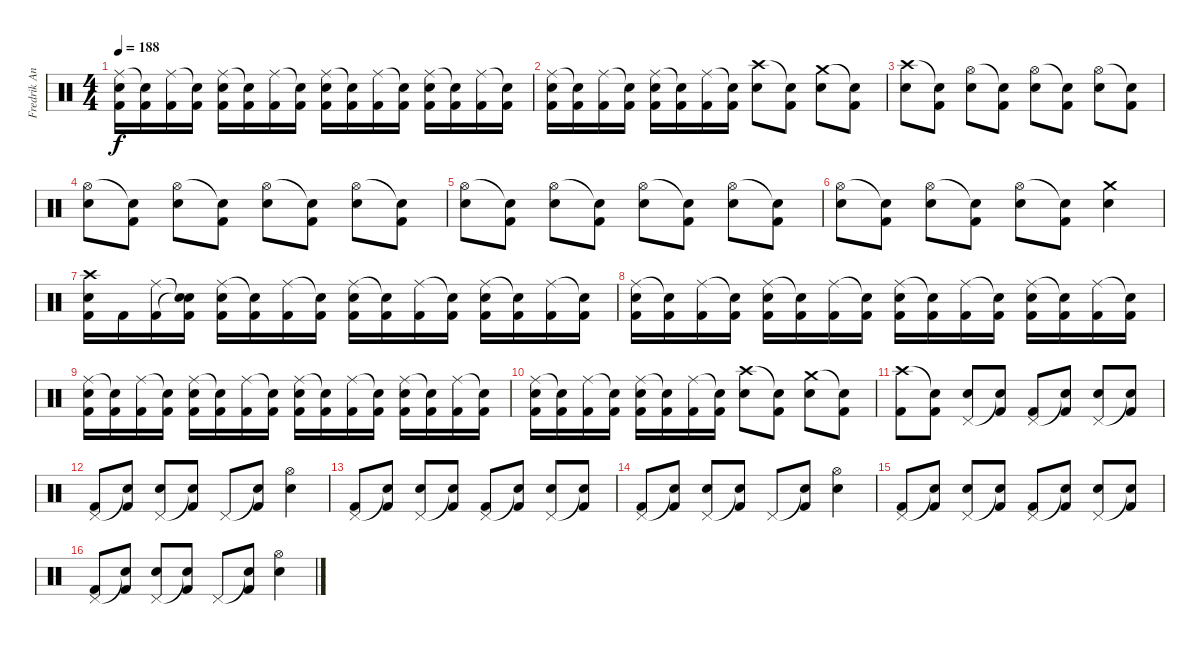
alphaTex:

\track ("Fredrik Andersson" "Fredrik An") {instrument percussion}
\staff {score}
\articulation defaults
\ts (4 4)
\tempo 188
\clef neutral
\ks c
("Ride (middle)" "Snare (hit) 2" "Kick (hit) 2").16{dy f} ("Snare (hit)"{t} "Kick (hit) 2").16 ("Ride (middle)" "Kick (hit) 2").16 ("Snare (hit)"{t} "Kick (hit) 2").16 ("Ride (middle)" "Snare (hit) 2" "Kick (hit) 2").16 ("Snare (hit)"{t} "Kick (hit) 2").16 ("Ride (middle)" "Kick (hit) 2").16 ("Snare (hit)"{t} "Kick (hit) 2").16 ("Ride (middle)" "Snare (hit) 2" "Kick (hit) 2").16 ("Snare (hit)"{t} "Kick (hit) 2").16 ("Ride (middle)" "Kick (hit) 2").16 ("Snare (hit)"{t} "Kick (hit) 2").16 ("Ride (middle)" "Snare (hit) 2" "Kick (hit) 2").16 ("Snare (hit)"{t} "Kick (hit) 2").16 ("Ride (middle)" "Kick (hit) 2").16 ("Snare (hit)"{t} "Kick (hit) 2").16 |
("Ride (middle)" "Snare (hit) 2" "Kick (hit) 2").16 ("Snare (hit)"{t} "Kick (hit) 2").16 ("Ride (middle)" "Kick (hit) 2").16 ("Snare (hit)"{t} "Kick (hit) 2").16 ("Ride (middle)" "Snare (hit) 2" "Kick (hit) 2").16 ("Snare (hit)"{t} "Kick (hit) 2").16 ("Ride (middle)" "Kick (hit) 2").16 ("Snare (hit)"{t} "Kick (hit) 2").16 ("Crash high (hit)" "Snare (hit) 2").8 ("Snare (hit)"{t} "Kick (hit) 2").8 ("Crash medium (hit)" "Snare (hit) 2").8 ("Snare (hit)"{t} "Kick (hit) 2").8 |
("Crash high (hit)" "Snare (hit) 2").8 ("Snare (hit)"{t} "Kick (hit) 2").8 ("Hi-Hat (open)" "Snare (hit) 2").8 ("Snare (hit)"{t} "Kick (hit) 2").8 ("Hi-Hat (open)" "Snare (hit) 2").8 ("Snare (hit)"{t} "Kick (hit) 2").8 ("Hi-Hat (open)" "Snare (hit) 2").8 ("Snare (hit)"{t} "Kick (hit) 2").8 |
("Hi-Hat (open)" "Snare (hit) 2").8 ("Snare (hit)"{t} "Kick (hit) 2").8 ("Hi-Hat (open)" "Snare (hit) 2").8 ("Snare (hit)"{t} "Kick (hit) 2").8 ("Hi-Hat (open)" "Snare (hit) 2").8 ("Snare (hit)"{t} "Kick (hit) 2").8 ("Hi-Hat (open)" "Snare (hit) 2").8 ("Snare (hit)"{t} "Kick (hit) 2").8 |
("Hi-Hat (open)" "Snare (hit) 2").8 ("Snare (hit)"{t} "Kick (hit) 2").8 ("Hi-Hat (open)" "Snare (hit) 2").8 ("Snare (hit)"{t} "Kick (hit) 2").8 ("Hi-Hat (open)" "Snare (hit) 2").8 ("Snare (hit)"{t} "Kick (hit) 2").8 ("Hi-Hat (open)" "Snare (hit) 2").8 ("Snare (hit)"{t} "Kick (hit) 2").8 |
("Hi-Hat (open)" "Snare (hit) 2").8 ("Snare (hit)"{t} "Kick (hit) 2").8 ("Hi-Hat (open)" "Snare (hit) 2").8 ("Snare (hit)"{t} "Kick (hit) 2").8 ("Hi-Hat (open)" "Snare (hit) 2").8 ("Snare (hit)"{t} "Kick (hit) 2").8 ("Crash medium (hit)" "Snare (hit) 2").4 |
("Crash high (hit)" "Snare (hit) 2" "Kick (hit) 2").16 "Kick (hit) 2".16 ("Ride (middle)" "Kick (hit) 2").16 ("Snare (hit)"{t} "Snare (hit)"{t} "Kick (hit) 2").16 ("Ride (middle)" "Snare (hit) 2" "Kick (hit) 2").16 ("Snare (hit)"{t} "Kick (hit) 2").16 ("Ride (middle)" "Kick (hit) 2").16 ("Snare (hit)"{t} "Kick (hit) 2").16 ("Ride (middle)" "Snare (hit) 2" "Kick (hit) 2").16 ("Snare (hit)"{t} "Kick (hit) 2").16 ("Ride (middle)" "Kick (hit) 2").16 ("Snare (hit)"{t} "Kick (hit) 2").16 ("Ride (middle)" "Snare (hit) 2" "Kick (hit) 2").16 ("Snare (hit)"{t} "Kick (hit) 2").16 ("Ride (middle)" "Kick (hit) 2").16 ("Snare (hit)"{t} "Kick (hit) 2").16 |
("Ride (middle)" "Snare (hit) 2" "Kick (hit) 2").16 ("Snare (hit)"{t} "Kick (hit) 2").16 ("Ride (middle)" "Kick (hit) 2").16 ("Snare (hit)"{t} "Kick (hit) 2").16 ("Ride (middle)" "Snare (hit) 2" "Kick (hit) 2").16 ("Snare (hit)"{t} "Kick (hit) 2").16 ("Ride (middle)" "Kick (hit) 2").16 ("Snare (hit)"{t} "Kick (hit) 2").16 ("Ride (middle)" "Snare (hit) 2" "Kick (hit) 2").16 ("Snare (hit)"{t} "Kick (hit) 2").16 ("Ride (middle)" "Kick (hit) 2").16 ("Snare (hit)"{t} "Kick (hit) 2").16 ("Ride (middle)" "Snare (hit) 2" "Kick (hit) 2").16 ("Snare (hit)"{t} "Kick (hit) 2").16 ("Ride (middle)" "Kick (hit) 2").16 ("Snare (hit)"{t} "Kick (hit) 2").16 |
("Ride (middle)" "Snare (hit) 2" "Kick (hit) 2").16 ("Snare (hit)"{t} "Kick (hit) 2").16 ("Ride (middle)" "Kick (hit) 2").16 ("Snare (hit)"{t} "Kick (hit) 2").16 ("Ride (middle)" "Snare (hit) 2" "Kick (hit) 2").16 ("Snare (hit)"{t} "Kick (hit) 2").16 ("Ride (middle)" "Kick (hit) 2").16 ("Snare (hit)"{t} "Kick (hit) 2").16 ("Ride (middle)" "Snare (hit) 2" "Kick (hit) 2").16 ("Snare (hit)"{t} "Kick (hit) 2").16 ("Ride (middle)" "Kick (hit) 2").16 ("Snare (hit)"{t} "Kick (hit) 2").16 ("Ride (middle)" "Snare (hit) 2" "Kick (hit) 2").16 ("Snare (hit)"{t} "Kick (hit) 2").16 ("Ride (middle)" "Kick (hit) 2").16 ("Snare (hit)"{t} "Kick (hit) 2").16 |
("Ride (middle)" "Snare (hit) 2" "Kick (hit) 2").16 ("Snare (hit)"{t} "Kick (hit) 2").16 ("Ride (middle)" "Kick (hit) 2").16 ("Snare (hit)"{t} "Kick (hit) 2").16 ("Ride (middle)" "Snare (hit) 2" "Kick (hit) 2").16 ("Snare (hit)"{t} "Kick (hit) 2").16 ("Ride (middle)" "Kick (hit) 2").16 ("Snare (hit)"{t} "Kick (hit) 2").16 ("Crash high (hit)" "Snare (hit) 2").8 ("Snare (hit)"{t} "Kick (hit) 2").8 ("Crash medium (hit)" "Snare (hit) 2").8 ("Snare (hit)"{t} "Kick (hit) 2").8 |
("Crash high (hit)" "Kick (hit) 2").8 ("Snare (hit)"{t} "Kick (hit) 2").8 ("Pedal Hi-Hat (hit)" "Snare (hit) 2").8 ("Snare (hit)"{t} "Kick (hit) 2").8 ("Pedal Hi-Hat (hit)" "Kick (hit) 2").8 ("Snare (hit)"{t} "Kick (hit) 2").8 ("Pedal Hi-Hat (hit)" "Snare (hit) 2").8 ("Snare (hit)"{t} "Kick (hit) 2").8 |
("Pedal Hi-Hat (hit)" "Kick (hit) 2").8 ("Snare (hit)"{t} "Kick (hit) 2").8 ("Pedal Hi-Hat (hit)" "Snare (hit) 2").8 ("Snare (hit)"{t} "Kick (hit) 2").8 "Pedal Hi-Hat (hit)".8 ("Snare (hit)"{t} "Kick (hit) 2").8 ("Hi-Hat (open)" "Snare (hit) 2").4 |
("Pedal Hi-Hat (hit)" "Kick (hit) 2").8 ("Snare (hit)"{t} "Kick (hit) 2").8 ("Pedal Hi-Hat (hit)" "Snare (hit) 2").8 ("Snare (hit)"{t} "Kick (hit) 2").8 ("Pedal Hi-Hat (hit)" "Kick (hit) 2").8 ("Snare (hit)"{t} "Kick (hit) 2").8 ("Pedal Hi-Hat (hit)" "Snare (hit) 2").8 ("Snare (hit)"{t} "Kick (hit) 2").8 |
("Pedal Hi-Hat (hit)" "Kick (hit) 2").8 ("Snare (hit)"{t} "Kick (hit) 2").8 ("Pedal Hi-Hat (hit)" "Snare (hit) 2").8 ("Snare (hit)"{t} "Kick (hit) 2").8 "Pedal Hi-Hat (hit)".8 ("Snare (hit)"{t} "Kick (hit) 2").8 ("Hi-Hat (open)" "Snare (hit) 2").4 |
("Pedal Hi-Hat (hit)" "Kick (hit) 2").8 ("Snare (hit)"{t} "Kick (hit) 2").8 ("Pedal Hi-Hat (hit)" "Snare (hit) 2").8 ("Snare (hit)"{t} "Kick (hit) 2").8 ("Pedal Hi-Hat (hit)" "Kick (hit) 2").8 ("Snare (hit)"{t} "Kick (hit) 2").8 ("Pedal Hi-Hat (hit)" "Snare (hit) 2").8 ("Snare (hit)"{t} "Kick (hit) 2").8 |
("Pedal Hi-Hat (hit)" "Kick (hit) 2").8 ("Snare (hit)"{t} "Kick (hit) 2").8 ("Pedal Hi-Hat (hit)" "Snare (hit) 2").8 ("Snare (hit)"{t} "Kick (hit) 2").8 "Pedal Hi-Hat (hit)".8 ("Snare (hit)"{t} "Kick (hit) 2").8 ("Hi-Hat (open)" "Snare (hit) 2").4
